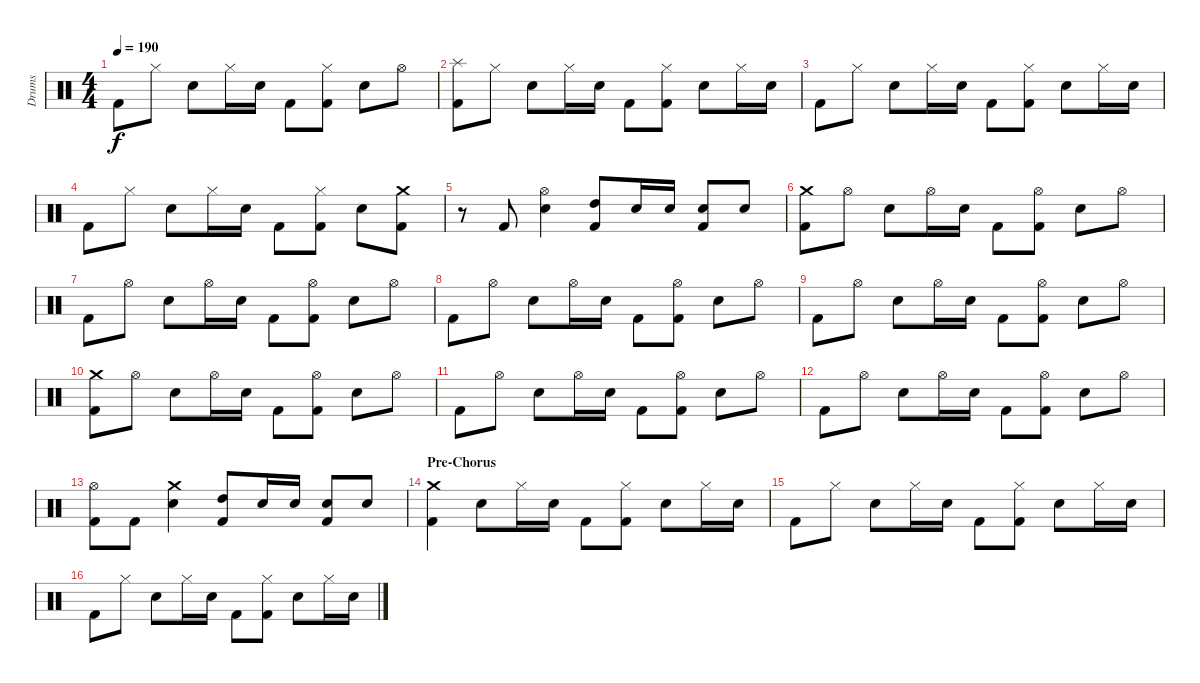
\track ("Drums" "Drums") {instrument percussion}
\staff {score}
\articulation defaults
\ts (4 4)
\tempo 190
\clef neutral
\ks c "Kick (hit) 2".8{dy f} "Hi-Hat (closed)".8 "Snare (hit) 2".8 "Hi-Hat (closed)".16 "Snare (hit) 2".16 "Kick (hit) 2".8
("Hi-Hat (closed)" "Kick (hit) 2").8 "Snare (hit) 2".8 "Hi-Hat (open)".8 |
("Splash (hit)" "Kick (hit) 2").8 "Hi-Hat (closed)".8 "Snare (hit) 2".8 "Hi-Hat (closed)".16 "Snare (hit) 2".16 "Kick (hit) 2".8 ("Hi-Hat (closed)" "Kick (hit) 2").8 "Snare (hit) 2".8 "Hi-Hat (closed)".16 "Snare (hit) 2".16 |
"Kick (hit) 2".8 "Hi-Hat (closed)".8 "Snare (hit) 2".8 "Hi-Hat (closed)".16 "Snare (hit) 2".16 "Kick (hit) 2".8 ("Hi-Hat (closed)" "Kick (hit) 2").8 "Snare (hit) 2".8 "Hi-Hat (closed)".16 "Snare (hit) 2".16 |
"Kick (hit) 2".8 "Hi-Hat (closed)".8 "Snare (hit) 2".8 "Hi-Hat (closed)".16 "Snare (hit) 2".16 "Kick (hit) 2".8 ("Hi-Hat (closed)" "Kick (hit) 2").8 "Snare (hit) 2".8 ("Crash medium (hit)" "Kick (hit) 2").8 |
r.8 "Kick (hit) 2".8 ("Hi-Hat (open)" "Snare (hit) 2").4 ("High Tom (hit)" "Kick (hit) 2").8 "Snare (hit) 2".16 "Snare (hit) 2".16 ("Snare (hit) 2" "Kick (hit) 2").8 "Snare (hit) 2".8 |
("Crash medium (hit)" "Kick (hit) 2").8 "Hi-Hat (open)".8 "Snare (hit) 2".8 "Hi-Hat (open)".16 "Snare (hit) 2".16 "Kick (hit) 2".8 ("Hi-Hat (open)" "Kick (hit) 2").8 "Snare (hit) 2".8 "Hi-Hat (open)".8 |
"Kick (hit) 2".8 "Hi-Hat (open)".8 "Snare (hit) 2".8 "Hi-Hat (open)".16 "Snare (hit) 2".16 "Kick (hit) 2".8 ("Hi-Hat (open)" "Kick (hit) 2").8 "Snare (hit) 2".8 "Hi-Hat (open)".8 |
"Kick (hit) 2".8 "Hi-Hat (open)".8 "Snare (hit) 2".8 "Hi-Hat (open)".16 "Snare (hit) 2".16 "Kick (hit) 2".8 ("Hi-Hat (open)" "Kick (hit) 2").8 "Snare (hit) 2".8 "Hi-Hat (open)".8 |
"Kick (hit) 2".8 "Hi-Hat (open)".8 "Snare (hit) 2".8 "Hi-Hat (open)".16 "Snare (hit) 2".16 "Kick (hit) 2".8 ("Hi-Hat (open)" "Kick (hit) 2").8 "Snare (hit) 2".8 "Hi-Hat (open)".8 |
("Crash medium (hit)" "Kick (hit) 2").8 "Hi-Hat (open)".8 "Snare (hit) 2".8 "Hi-Hat (open)".16 "Snare (hit) 2".16 "Kick (hit) 2".8 ("Hi-Hat (open)" "Kick (hit) 2").8 "Snare (hit) 2".8 "Hi-Hat (open)".8 |
"Kick (hit) 2".8 "Hi-Hat (open)".8 "Snare (hit) 2".8 "Hi-Hat (open)".16 "Snare (hit) 2".16 "Kick (hit) 2".8 ("Hi-Hat (open)" "Kick (hit) 2").8 "Snare (hit) 2".8 "Hi-Hat (open)".8 |
"Kick (hit) 2".8 "Hi-Hat (open)".8 "Snare (hit) 2".8 "Hi-Hat (open)".16 "Snare (hit) 2".16 "Kick (hit) 2".8 ("Hi-Hat (open)" "Kick (hit) 2").8 "Snare (hit) 2".8 "Hi-Hat (open)".8 |
("Hi-Hat (open)" "Kick (hit) 2").8 "Kick (hit) 2".8 ("Crash medium (hit)" "Snare (hit) 2").4 ("High Tom (hit)" "Kick (hit) 2").8 "Snare (hit) 2".16 "Snare (hit) 2".16 ("Snare (hit) 2" "Kick (hit) 2").8 "Snare (hit) 2".8 |
\section ("" "Pre-Chorus")
("Crash medium (hit)" "Kick (hit) 2").4 "Snare (hit) 2".8 "Hi-Hat (closed)".16 "Snare (hit) 2".16 "Kick (hit) 2".8 ("Hi-Hat (closed)" "Kick (hit) 2").8 "Snare (hit) 2".8 "Hi-Hat (closed)".16 "Snare (hit) 2".16 |
"Kick (hit) 2".8 "Hi-Hat (closed)".8 "Snare (hit) 2".8 "Hi-Hat (closed)".16 "Snare (hit) 2".16 "Kick (hit) 2".8 ("Hi-Hat (closed)" "Kick (hit) 2").8 "Snare (hit) 2".8 "Hi-Hat (closed)".16 "Snare (hit) 2".16 |
"Kick (hit) 2".8 "Hi-Hat (closed)".8 "Snare (hit) 2".8 "Hi-Hat (closed)".16 "Snare (hit) 2".16 "Kick (hit) 2".8 ("Hi-Hat (closed)" "Kick (hit) 2").8 "Snare (hit) 2".8 "Hi-Hat (closed)".16 "Snare (hit) 2".16
